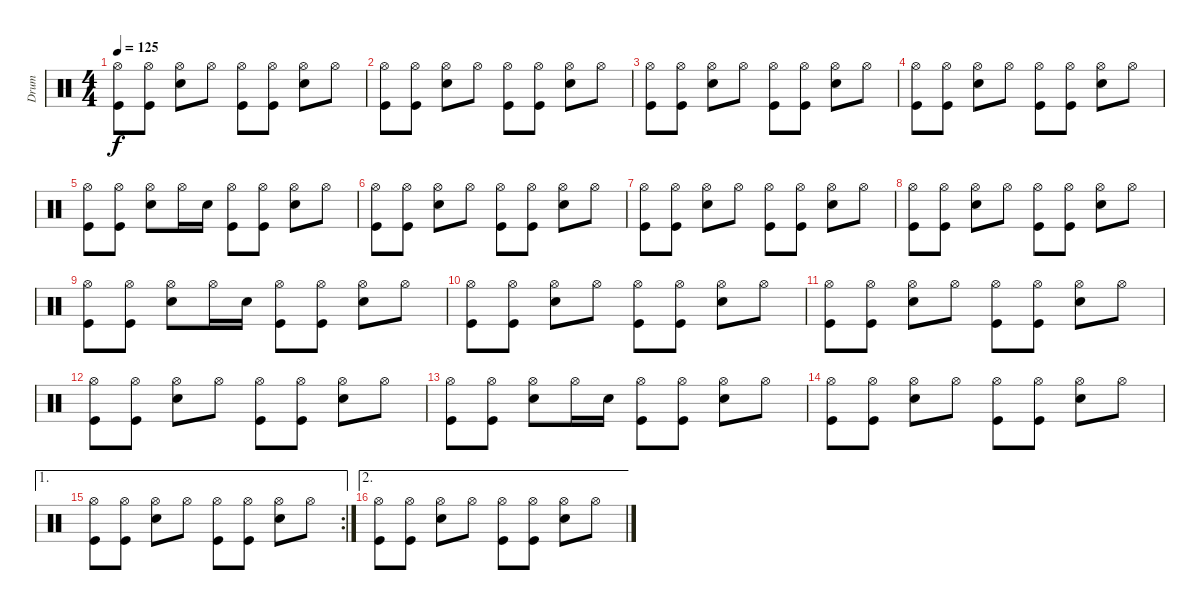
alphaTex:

\track ("Drum" "Drum") {instrument percussion}
\staff {score}
\articulation defaults
\ts (4 4)
\tempo 125
\clef neutral
\ks c
("Hi-Hat (open)" "Kick (hit)").8{dy f} ("Hi-Hat (open)" "Kick (hit)").8 ("Hi-Hat (open)" "Snare (hit) 2").8 "Hi-Hat (open)".8 ("Hi-Hat (open)" "Kick (hit)").8 ("Hi-Hat (open)" "Kick (hit)").8 ("Hi-Hat (open)" "Snare (hit) 2").8 "Hi-Hat (open)".8 |
("Hi-Hat (open)" "Kick (hit)").8 ("Hi-Hat (open)" "Kick (hit)").8 ("Hi-Hat (open)" "Snare (hit) 2").8 "Hi-Hat (open)".8 ("Hi-Hat (open)" "Kick (hit)").8 ("Hi-Hat (open)" "Kick (hit)").8 ("Hi-Hat (open)" "Snare (hit) 2").8 "Hi-Hat (open)".8 |
("Hi-Hat (open)" "Kick (hit)").8 ("Hi-Hat (open)" "Kick (hit)").8 ("Hi-Hat (open)" "Snare (hit) 2").8 "Hi-Hat (open)".8 ("Hi-Hat (open)" "Kick (hit)").8 ("Hi-Hat (open)" "Kick (hit)").8 ("Hi-Hat (open)" "Snare (hit) 2").8 "Hi-Hat (open)".8 |
("Hi-Hat (open)" "Kick (hit)").8 ("Hi-Hat (open)" "Kick (hit)").8 ("Hi-Hat (open)" "Snare (hit) 2").8 "Hi-Hat (open)".8 ("Hi-Hat (open)" "Kick (hit)").8 ("Hi-Hat (open)" "Kick (hit)").8 ("Hi-Hat (open)" "Snare (hit) 2").8 "Hi-Hat (open)".8 |
("Hi-Hat (open)" "Kick (hit)").8 ("Hi-Hat (open)" "Kick (hit)").8 ("Hi-Hat (open)" "Snare (hit) 2").8 "Hi-Hat (open)".16 "Snare (hit) 2".16 ("Hi-Hat (open)" "Kick (hit)").8 ("Hi-Hat (open)" "Kick (hit)").8 ("Hi-Hat (open)" "Snare (hit) 2").8 "Hi-Hat (open)".8 |
("Hi-Hat (open)" "Kick (hit)").8 ("Hi-Hat (open)" "Kick (hit)").8 ("Hi-Hat (open)" "Snare (hit) 2").8 "Hi-Hat (open)".8 ("Hi-Hat (open)" "Kick (hit)").8 ("Hi-Hat (open)" "Kick (hit)").8 ("Hi-Hat (open)" "Snare (hit) 2").8 "Hi-Hat (open)".8 |
("Hi-Hat (open)" "Kick (hit)").8 ("Hi-Hat (open)" "Kick (hit)").8 ("Hi-Hat (open)" "Snare (hit) 2").8 "Hi-Hat (open)".8 ("Hi-Hat (open)" "Kick (hit)").8 ("Hi-Hat (open)" "Kick (hit)").8 ("Hi-Hat (open)" "Snare (hit) 2").8 "Hi-Hat (open)".8 |
("Hi-Hat (open)" "Kick (hit)").8 ("Hi-Hat (open)" "Kick (hit)").8 ("Hi-Hat (open)" "Snare (hit) 2").8 "Hi-Hat (open)".8 ("Hi-Hat (open)" "Kick (hit)").8 ("Hi-Hat (open)" "Kick (hit)").8 ("Hi-Hat (open)" "Snare (hit) 2").8 "Hi-Hat (open)".8 |
("Hi-Hat (open)" "Kick (hit)").8 ("Hi-Hat (open)" "Kick (hit)").8 ("Hi-Hat (open)" "Snare (hit) 2").8 "Hi-Hat (open)".16 "Snare (hit) 2".16 ("Hi-Hat (open)" "Kick (hit)").8 ("Hi-Hat (open)" "Kick (hit)").8 ("Hi-Hat (open)" "Snare (hit) 2").8 "Hi-Hat (open)".8 |
("Hi-Hat (open)" "Kick (hit)").8 ("Hi-Hat (open)" "Kick (hit)").8 ("Hi-Hat (open)" "Snare (hit) 2").8 "Hi-Hat (open)".8 ("Hi-Hat (open)" "Kick (hit)").8 ("Hi-Hat (open)" "Kick (hit)").8 ("Hi-Hat (open)" "Snare (hit) 2").8 "Hi-Hat (open)".8 |
("Hi-Hat (open)" "Kick (hit)").8 ("Hi-Hat (open)" "Kick (hit)").8 ("Hi-Hat (open)" "Snare (hit) 2").8 "Hi-Hat (open)".8 ("Hi-Hat (open)" "Kick (hit)").8 ("Hi-Hat (open)" "Kick (hit)").8 ("Hi-Hat (open)" "Snare (hit) 2").8 "Hi-Hat (open)".8 |
("Hi-Hat (open)" "Kick (hit)").8 ("Hi-Hat (open)" "Kick (hit)").8 ("Hi-Hat (open)" "Snare (hit) 2").8 "Hi-Hat (open)".8 ("Hi-Hat (open)" "Kick (hit)").8 ("Hi-Hat (open)" "Kick (hit)").8 ("Hi-Hat (open)" "Snare (hit) 2").8 "Hi-Hat (open)".8 |
("Hi-Hat (open)" "Kick (hit)").8 ("Hi-Hat (open)" "Kick (hit)").8 ("Hi-Hat (open)" "Snare (hit) 2").8 "Hi-Hat (open)".16 "Snare (hit) 2".16 ("Hi-Hat (open)" "Kick (hit)").8 ("Hi-Hat (open)" "Kick (hit)").8 ("Hi-Hat (open)" "Snare (hit) 2").8 "Hi-Hat (open)".8 |
("Hi-Hat (open)" "Kick (hit)").8 ("Hi-Hat (open)" "Kick (hit)").8 ("Hi-Hat (open)" "Snare (hit) 2").8 "Hi-Hat (open)".8 ("Hi-Hat (open)" "Kick (hit)").8 ("Hi-Hat (open)" "Kick (hit)").8 ("Hi-Hat (open)" "Snare (hit) 2").8 "Hi-Hat (open)".8 |
\ae 1
\rc 2
("Hi-Hat (open)" "Kick (hit)").8 ("Hi-Hat (open)" "Kick (hit)").8 ("Hi-Hat (open)" "Snare (hit) 2").8 "Hi-Hat (open)".8 ("Hi-Hat (open)" "Kick (hit)").8 ("Hi-Hat (open)" "Kick (hit)").8 ("Hi-Hat (open)" "Snare (hit) 2").8 "Hi-Hat (open)".8 |
\ae 2
("Hi-Hat (open)" "Kick (hit)").8 ("Hi-Hat (open)" "Kick (hit)").8 ("Hi-Hat (open)" "Snare (hit) 2").8 "Hi-Hat (open)".8 ("Hi-Hat (open)" "Kick (hit)").8 ("Hi-Hat (open)" "Kick (hit)").8 ("Hi-Hat (open)" "Snare (hit) 2").8 "Hi-Hat (open)".8
